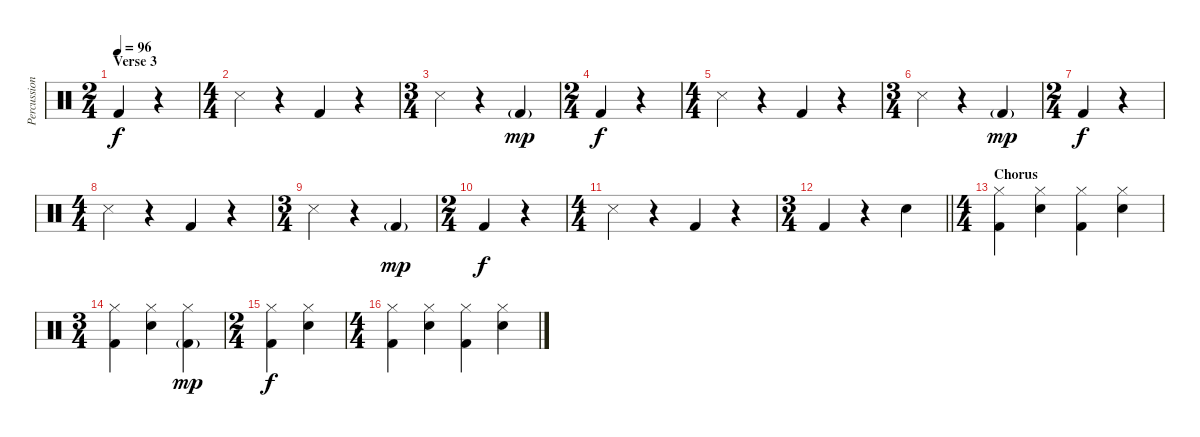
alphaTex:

\track ("Percussion" "Percussion") {instrument percussion}
\staff {score}
\articulation defaults
\ts (2 4)
\section ("" "Verse 3")
\tempo 96
\clef neutral
\ks c "Kick (hit) 2".4{dy f}
r.4 |
\ts (4 4)
"Snare (side stick) 3".4 r.4 "Kick (hit) 2".4 r.4 |
\ts (3 4)
"Snare (side stick) 3".4 r.4 "Kick (hit) 2"{g}.4{dy mp} |
\ts (2 4)
"Kick (hit) 2".4{dy f} r.4 |
\ts (4 4)
"Snare (side stick) 3".4 r.4 "Kick (hit) 2".4 r.4 |
\ts (3 4)
"Snare (side stick) 3".4 r.4 "Kick (hit) 2"{g}.4{dy mp} |
\ts (2 4)
"Kick (hit) 2".4{dy f} r.4 |
\ts (4 4)
"Snare (side stick) 3".4 r.4 "Kick (hit) 2".4 r.4 |
\ts (3 4)
"Snare (side stick) 3".4 r.4 "Kick (hit) 2"{g}.4{dy mp} |
\ts (2 4)
"Kick (hit) 2".4{dy f} r.4 |
\ts (4 4)
"Snare (side stick) 3".4 r.4 "Kick (hit) 2".4 r.4 |
\ts (3 4)
\barLineRight lightlight "Kick (hit) 2".4
r.4 "Snare (hit) 2".4 |
\ts (4 4)
\section ("" "Chorus")
("Hi-Hat (closed)" "Kick (hit) 2").4 ("Hi-Hat (closed)" "Snare (hit) 2").4 ("Hi-Hat (closed)" "Kick (hit) 2").4 ("Hi-Hat (closed)" "Snare (hit) 2").4 |
\ts (3 4)
("Hi-Hat (closed)" "Kick (hit) 2").4 ("Hi-Hat (closed)" "Snare (hit) 2").4 ("Hi-Hat (closed)" "Kick (hit) 2"{g}).4{dy mp} |
\ts (2 4)
("Hi-Hat (closed)" "Kick (hit) 2").4{dy f} ("Hi-Hat (closed)" "Snare (hit) 2").4 |
\ts (4 4)
("Hi-Hat (closed)" "Kick (hit) 2").4 ("Hi-Hat (closed)" "Snare (hit) 2").4 ("Hi-Hat (closed)" "Kick (hit) 2").4 ("Hi-Hat (closed)" "Snare (hit) 2").4
